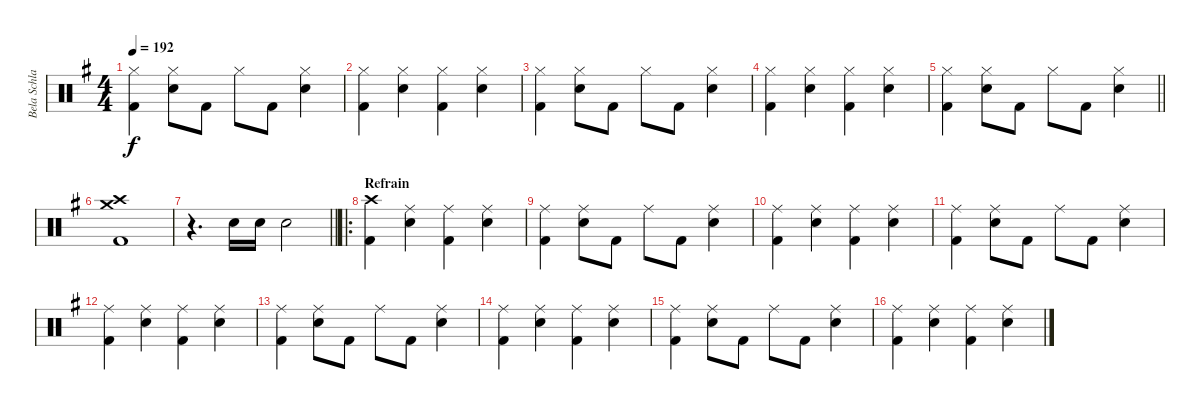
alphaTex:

\track ("Bela Schlagzeug" "Bela Schla") {instrument percussion}
\staff {score}
\articulation defaults
\ts (4 4)
\tempo 192
\clef neutral
\ks g
("Hi-Hat (closed)" "Kick (hit) 2").4{dy f} ("Hi-Hat (closed)" "Electric Snare (hit)").8 "Kick (hit) 2".8 "Hi-Hat (closed)".8 "Kick (hit) 2".8 ("Hi-Hat (closed)" "Electric Snare (hit)").4 |
("Hi-Hat (closed)" "Kick (hit) 2").4 ("Hi-Hat (closed)" "Electric Snare (hit)").4 ("Hi-Hat (closed)" "Kick (hit) 2").4 ("Hi-Hat (closed)" "Electric Snare (hit)").4 |
("Hi-Hat (closed)" "Kick (hit) 2").4 ("Hi-Hat (closed)" "Electric Snare (hit)").8 "Kick (hit) 2".8 "Hi-Hat (closed)".8 "Kick (hit) 2".8 ("Hi-Hat (closed)" "Electric Snare (hit)").4 |
("Hi-Hat (closed)" "Kick (hit) 2").4 ("Hi-Hat (closed)" "Electric Snare (hit)").4 ("Hi-Hat (closed)" "Kick (hit) 2").4 ("Hi-Hat (closed)" "Electric Snare (hit)").4 |
\barLineRight lightlight
("Hi-Hat (closed)" "Kick (hit) 2").4 ("Hi-Hat (closed)" "Electric Snare (hit)").8 "Kick (hit) 2".8 "Hi-Hat (closed)".8 "Kick (hit) 2".8 ("Hi-Hat (closed)" "Electric Snare (hit)").4 |
("Crash medium (hit)" "Crash high (hit)" "Kick (hit) 2").1 |
\barLineRight lightlight
r.4{d} "Electric Snare (hit)".16 "Electric Snare (hit)".16 "Electric Snare (hit)".2 |
\ro
\section ("" "Refrain")
("Crash high (hit)" "Kick (hit) 2").4 ("Ride (middle)" "Electric Snare (hit)").4 ("Ride (middle)" "Kick (hit) 2").4 ("Ride (middle)" "Electric Snare (hit)").4 |
("Ride (middle)" "Kick (hit) 2").4 ("Ride (middle)" "Electric Snare (hit)").8 "Kick (hit) 2".8 "Ride (middle)".8 "Kick (hit) 2".8 ("Ride (middle)" "Electric Snare (hit)").4 |
("Ride (middle)" "Kick (hit) 2").4 ("Ride (middle)" "Electric Snare (hit)").4 ("Ride (middle)" "Kick (hit) 2").4 ("Ride (middle)" "Electric Snare (hit)").4 |
("Ride (middle)" "Kick (hit) 2").4 ("Ride (middle)" "Electric Snare (hit)").8 "Kick (hit) 2".8 "Ride (middle)".8 "Kick (hit) 2".8 ("Ride (middle)" "Electric Snare (hit)").4 |
("Ride (middle)" "Kick (hit) 2").4 ("Ride (middle)" "Electric Snare (hit)").4 ("Ride (middle)" "Kick (hit) 2").4 ("Ride (middle)" "Electric Snare (hit)").4 |
("Ride (middle)" "Kick (hit) 2").4 ("Ride (middle)" "Electric Snare (hit)").8 "Kick (hit) 2".8 "Ride (middle)".8 "Kick (hit) 2".8 ("Ride (middle)" "Electric Snare (hit)").4 |
("Ride (middle)" "Kick (hit) 2").4 ("Ride (middle)" "Electric Snare (hit)").4 ("Ride (middle)" "Kick (hit) 2").4 ("Ride (middle)" "Electric Snare (hit)").4 |
("Ride (middle)" "Kick (hit) 2").4 ("Ride (middle)" "Electric Snare (hit)").8 "Kick (hit) 2".8 "Ride (middle)".8 "Kick (hit) 2".8 ("Ride (middle)" "Electric Snare (hit)").4 |
("Ride (middle)" "Kick (hit) 2").4 ("Ride (middle)" "Electric Snare (hit)").4 ("Ride (middle)" "Kick (hit) 2").4 ("Ride (middle)" "Electric Snare (hit)").4
